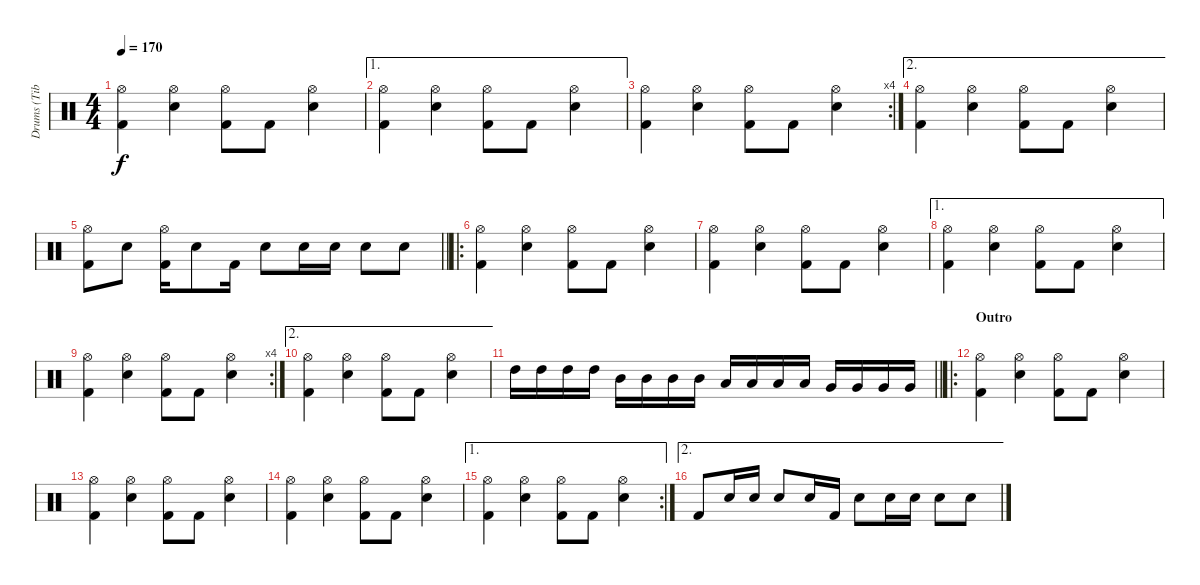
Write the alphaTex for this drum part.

\track ("Drums (Tibcsi Kiss)" "Drums (Tib") {instrument percussion}
\staff {score}
\articulation defaults
\ts (4 4)
\tempo 170
\clef neutral
\ks c
("Hi-Hat (open)" "Kick (hit) 2").4{dy f} ("Hi-Hat (open)" "Snare (hit) 2").4 ("Hi-Hat (open)" "Kick (hit) 2").8 "Kick (hit) 2".8 ("Hi-Hat (open)" "Snare (hit) 2").4 |
\ae 1
("Hi-Hat (open)" "Kick (hit) 2").4 ("Hi-Hat (open)" "Snare (hit) 2").4 ("Hi-Hat (open)" "Kick (hit) 2").8 "Kick (hit) 2".8 ("Hi-Hat (open)" "Snare (hit) 2").4 |
\rc 4
("Hi-Hat (open)" "Kick (hit) 2").4 ("Hi-Hat (open)" "Snare (hit) 2").4 ("Hi-Hat (open)" "Kick (hit) 2").8 "Kick (hit) 2".8 ("Hi-Hat (open)" "Snare (hit) 2").4 |
\ae 2
("Hi-Hat (open)" "Kick (hit) 2").4 ("Hi-Hat (open)" "Snare (hit) 2").4 ("Hi-Hat (open)" "Kick (hit) 2").8 "Kick (hit) 2".8 ("Hi-Hat (open)" "Snare (hit) 2").4 |
\barLineRight lightlight
("Hi-Hat (open)" "Kick (hit) 2").8 "Snare (hit) 2".8 ("Hi-Hat (open)" "Kick (hit) 2").16 "Snare (hit) 2".8 "Kick (hit) 2".16 "Snare (hit) 2".8 "Snare (hit) 2".16 "Snare (hit) 2".16 "Snare (hit) 2".8 "Snare (hit) 2".8 |
\ro
("Hi-Hat (open)" "Kick (hit) 2").4 ("Hi-Hat (open)" "Snare (hit) 2").4 ("Hi-Hat (open)" "Kick (hit) 2").8 "Kick (hit) 2".8 ("Hi-Hat (open)" "Snare (hit) 2").4 |
("Hi-Hat (open)" "Kick (hit) 2").4 ("Hi-Hat (open)" "Snare (hit) 2").4 ("Hi-Hat (open)" "Kick (hit) 2").8 "Kick (hit) 2".8 ("Hi-Hat (open)" "Snare (hit) 2").4 |
\ae 1
("Hi-Hat (open)" "Kick (hit) 2").4 ("Hi-Hat (open)" "Snare (hit) 2").4 ("Hi-Hat (open)" "Kick (hit) 2").8 "Kick (hit) 2".8 ("Hi-Hat (open)" "Snare (hit) 2").4 |
\rc 4
("Hi-Hat (open)" "Kick (hit) 2").4 ("Hi-Hat (open)" "Snare (hit) 2").4 ("Hi-Hat (open)" "Kick (hit) 2").8 "Kick (hit) 2".8 ("Hi-Hat (open)" "Snare (hit) 2").4 |
\ae 2
("Hi-Hat (open)" "Kick (hit) 2").4 ("Hi-Hat (open)" "Snare (hit) 2").4 ("Hi-Hat (open)" "Kick (hit) 2").8 "Kick (hit) 2".8 ("Hi-Hat (open)" "Snare (hit) 2").4 |
\barLineRight lightlight "High Tom (hit)".16 "High Tom (hit)".16 "High Tom (hit)".16 "High Tom (hit)".16 "Mid Tom (hit)".16 "Mid Tom (hit)".16 "Mid Tom (hit)".16 "Mid Tom (hit)".16 "Low Tom (hit)".16 "Low Tom (hit)".16 "Low Tom (hit)".16 "Low Tom (hit)".16 "Very Low Tom (hit)".16 "Very Low Tom (hit)".16 "Very Low Tom (hit)".16 "Very Low Tom (hit)".16
|
\ro
\section ("" "Outro")
("Hi-Hat (open)" "Kick (hit) 2").4 ("Hi-Hat (open)" "Snare (hit) 2").4 ("Hi-Hat (open)" "Kick (hit) 2").8 "Kick (hit) 2".8 ("Hi-Hat (open)" "Snare (hit) 2").4 |
("Hi-Hat (open)" "Kick (hit) 2").4 ("Hi-Hat (open)" "Snare (hit) 2").4 ("Hi-Hat (open)" "Kick (hit) 2").8 "Kick (hit) 2".8 ("Hi-Hat (open)" "Snare (hit) 2").4 |
("Hi-Hat (open)" "Kick (hit) 2").4 ("Hi-Hat (open)" "Snare (hit) 2").4 ("Hi-Hat (open)" "Kick (hit) 2").8 "Kick (hit) 2".8 ("Hi-Hat (open)" "Snare (hit) 2").4 |
\ae 1
\rc 2
("Hi-Hat (open)" "Kick (hit) 2").4 ("Hi-Hat (open)" "Snare (hit) 2").4 ("Hi-Hat (open)" "Kick (hit) 2").8 "Kick (hit) 2".8 ("Hi-Hat (open)" "Snare (hit) 2").4 |
\ae 2 "Kick (hit) 2".8 "Snare (hit) 2".16 "Snare (hit) 2".16 "Snare (hit) 2".8 "Snare (hit) 2".16 "Kick (hit) 2".16 "Snare (hit) 2".8 "Snare (hit) 2".16 "Snare (hit) 2".16 "Snare (hit) 2".8 "Snare (hit) 2".8
